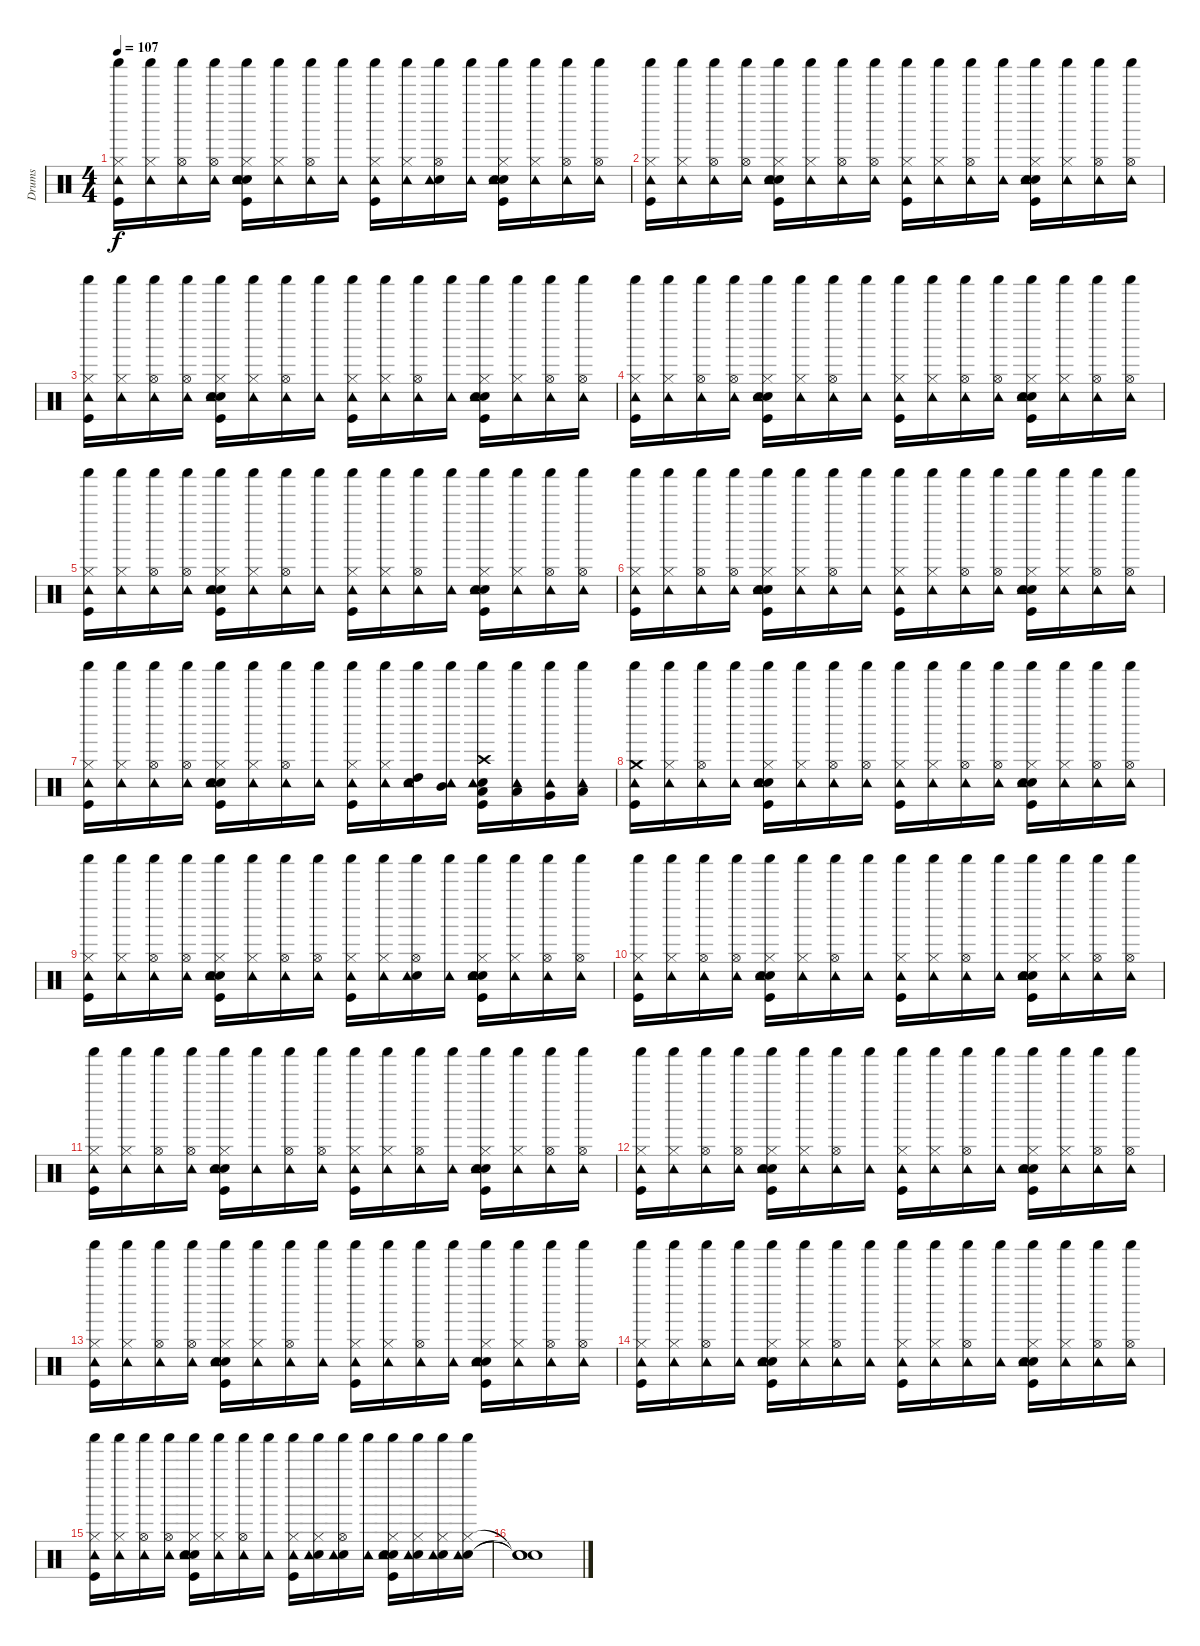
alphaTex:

\track ("Drums" "Drums") {instrument percussion}
\staff {score}
\articulation defaults
\ts (4 4)
\tempo 107
\clef neutral
\ks c
("Kick (hit)" "Hi-Hat (closed)" "Tambourine (hit)" "Shaker (hit)").16{dy f} ("Hi-Hat (closed)" "Tambourine (hit)" "Shaker (hit)").16 ("Hi-Hat (open)" "Tambourine (hit)" "Shaker (hit)").16 ("Hi-Hat (open)" "Tambourine (hit)" "Shaker (hit)").16 ("Kick (hit)" "Snare (hit) 2" "Hand Clap (hit)" "Hi-Hat (closed)" "Tambourine (hit)" "Shaker (hit)").16 ("Hi-Hat (closed)" "Tambourine (hit)" "Shaker (hit)").16 ("Hi-Hat (open)" "Tambourine (hit)" "Shaker (hit)").16 ("Tambourine (hit)" "Shaker (hit)").16 ("Kick (hit)" "Hi-Hat (closed)" "Tambourine (hit)" "Shaker (hit)").16 ("Hi-Hat (closed)" "Tambourine (hit)" "Shaker (hit)").16 ("Hand Clap (hit)" "Hi-Hat (open)" "Tambourine (hit)" "Shaker (hit)").16 ("Tambourine (hit)" "Shaker (hit)").16 ("Kick (hit)" "Snare (hit) 2" "Hand Clap (hit)" "Hi-Hat (closed)" "Tambourine (hit)" "Shaker (hit)").16 ("Hi-Hat (closed)" "Tambourine (hit)" "Shaker (hit)").16 ("Hi-Hat (open)" "Tambourine (hit)" "Shaker (hit)").16 ("Hi-Hat (open)" "Tambourine (hit)" "Shaker (hit)").16 |
("Kick (hit)" "Hi-Hat (closed)" "Tambourine (hit)" "Shaker (hit)").16 ("Hi-Hat (closed)" "Tambourine (hit)" "Shaker (hit)").16 ("Hi-Hat (open)" "Tambourine (hit)" "Shaker (hit)").16 ("Hi-Hat (open)" "Tambourine (hit)" "Shaker (hit)").16 ("Kick (hit)" "Snare (hit) 2" "Hand Clap (hit)" "Hi-Hat (closed)" "Tambourine (hit)" "Shaker (hit)").16 ("Hi-Hat (closed)" "Tambourine (hit)" "Shaker (hit)").16 ("Hi-Hat (open)" "Tambourine (hit)" "Shaker (hit)").16 ("Hi-Hat (open)" "Tambourine (hit)" "Shaker (hit)").16 ("Kick (hit)" "Hi-Hat (closed)" "Tambourine (hit)" "Shaker (hit)").16 ("Hi-Hat (closed)" "Tambourine (hit)" "Shaker (hit)").16 ("Hi-Hat (open)" "Tambourine (hit)" "Shaker (hit)").16 ("Tambourine (hit)" "Shaker (hit)").16 ("Kick (hit)" "Snare (hit) 2" "Hand Clap (hit)" "Hi-Hat (closed)" "Tambourine (hit)" "Shaker (hit)").16 ("Hi-Hat (closed)" "Tambourine (hit)" "Shaker (hit)").16 ("Hi-Hat (open)" "Tambourine (hit)" "Shaker (hit)").16 ("Hi-Hat (open)" "Tambourine (hit)" "Shaker (hit)").16 |
("Kick (hit)" "Hi-Hat (closed)" "Tambourine (hit)" "Shaker (hit)").16 ("Hi-Hat (closed)" "Tambourine (hit)" "Shaker (hit)").16 ("Hi-Hat (open)" "Tambourine (hit)" "Shaker (hit)").16 ("Hi-Hat (open)" "Tambourine (hit)" "Shaker (hit)").16 ("Kick (hit)" "Snare (hit) 2" "Hand Clap (hit)" "Hi-Hat (closed)" "Tambourine (hit)" "Shaker (hit)").16 ("Hi-Hat (closed)" "Tambourine (hit)" "Shaker (hit)").16 ("Hi-Hat (open)" "Tambourine (hit)" "Shaker (hit)").16 ("Tambourine (hit)" "Shaker (hit)").16 ("Kick (hit)" "Hi-Hat (closed)" "Tambourine (hit)" "Shaker (hit)").16 ("Hi-Hat (closed)" "Tambourine (hit)" "Shaker (hit)").16 ("Hi-Hat (open)" "Tambourine (hit)" "Shaker (hit)").16 ("Tambourine (hit)" "Shaker (hit)").16 ("Kick (hit)" "Snare (hit) 2" "Hand Clap (hit)" "Hi-Hat (closed)" "Tambourine (hit)" "Shaker (hit)").16 ("Hi-Hat (closed)" "Tambourine (hit)" "Shaker (hit)").16 ("Hi-Hat (open)" "Tambourine (hit)" "Shaker (hit)").16 ("Hi-Hat (open)" "Tambourine (hit)" "Shaker (hit)").16 |
("Kick (hit)" "Hi-Hat (closed)" "Tambourine (hit)" "Shaker (hit)").16 ("Hi-Hat (closed)" "Tambourine (hit)" "Shaker (hit)").16 ("Hi-Hat (open)" "Tambourine (hit)" "Shaker (hit)").16 ("Hi-Hat (open)" "Tambourine (hit)" "Shaker (hit)").16 ("Kick (hit)" "Snare (hit) 2" "Hand Clap (hit)" "Hi-Hat (closed)" "Tambourine (hit)" "Shaker (hit)").16 ("Hi-Hat (closed)" "Tambourine (hit)" "Shaker (hit)").16 ("Hi-Hat (open)" "Tambourine (hit)" "Shaker (hit)").16 ("Tambourine (hit)" "Shaker (hit)").16 ("Kick (hit)" "Hi-Hat (closed)" "Tambourine (hit)" "Shaker (hit)").16 ("Hi-Hat (closed)" "Tambourine (hit)" "Shaker (hit)").16 ("Hi-Hat (open)" "Tambourine (hit)" "Shaker (hit)").16 ("Hi-Hat (open)" "Tambourine (hit)" "Shaker (hit)").16 ("Kick (hit)" "Snare (hit) 2" "Hand Clap (hit)" "Hi-Hat (closed)" "Tambourine (hit)" "Shaker (hit)").16 ("Hi-Hat (closed)" "Tambourine (hit)" "Shaker (hit)").16 ("Hi-Hat (open)" "Tambourine (hit)" "Shaker (hit)").16 ("Hi-Hat (open)" "Tambourine (hit)" "Shaker (hit)").16 |
("Kick (hit)" "Hi-Hat (closed)" "Tambourine (hit)" "Shaker (hit)").16 ("Hi-Hat (closed)" "Tambourine (hit)" "Shaker (hit)").16 ("Hi-Hat (open)" "Tambourine (hit)" "Shaker (hit)").16 ("Hi-Hat (open)" "Tambourine (hit)" "Shaker (hit)").16 ("Kick (hit)" "Snare (hit) 2" "Hand Clap (hit)" "Hi-Hat (closed)" "Tambourine (hit)" "Shaker (hit)").16 ("Hi-Hat (closed)" "Tambourine (hit)" "Shaker (hit)").16 ("Hi-Hat (open)" "Tambourine (hit)" "Shaker (hit)").16 ("Tambourine (hit)" "Shaker (hit)").16 ("Kick (hit)" "Hi-Hat (closed)" "Tambourine (hit)" "Shaker (hit)").16 ("Hi-Hat (closed)" "Tambourine (hit)" "Shaker (hit)").16 ("Hi-Hat (open)" "Tambourine (hit)" "Shaker (hit)").16 ("Tambourine (hit)" "Shaker (hit)").16 ("Kick (hit)" "Snare (hit) 2" "Hand Clap (hit)" "Hi-Hat (closed)" "Tambourine (hit)" "Shaker (hit)").16 ("Hi-Hat (closed)" "Tambourine (hit)" "Shaker (hit)").16 ("Hi-Hat (open)" "Tambourine (hit)" "Shaker (hit)").16 ("Hi-Hat (open)" "Tambourine (hit)" "Shaker (hit)").16 |
("Kick (hit)" "Hi-Hat (closed)" "Tambourine (hit)" "Shaker (hit)").16 ("Hi-Hat (closed)" "Tambourine (hit)" "Shaker (hit)").16 ("Hi-Hat (open)" "Tambourine (hit)" "Shaker (hit)").16 ("Hi-Hat (open)" "Tambourine (hit)" "Shaker (hit)").16 ("Kick (hit)" "Snare (hit) 2" "Hand Clap (hit)" "Hi-Hat (closed)" "Tambourine (hit)" "Shaker (hit)").16 ("Hi-Hat (closed)" "Tambourine (hit)" "Shaker (hit)").16 ("Hi-Hat (open)" "Tambourine (hit)" "Shaker (hit)").16 ("Tambourine (hit)" "Shaker (hit)").16 ("Kick (hit)" "Hi-Hat (closed)" "Tambourine (hit)" "Shaker (hit)").16 ("Hi-Hat (closed)" "Tambourine (hit)" "Shaker (hit)").16 ("Hi-Hat (open)" "Tambourine (hit)" "Shaker (hit)").16 ("Hi-Hat (open)" "Tambourine (hit)" "Shaker (hit)").16 ("Kick (hit)" "Snare (hit) 2" "Hand Clap (hit)" "Hi-Hat (closed)" "Tambourine (hit)" "Shaker (hit)").16 ("Hi-Hat (closed)" "Tambourine (hit)" "Shaker (hit)").16 ("Hi-Hat (open)" "Tambourine (hit)" "Shaker (hit)").16 ("Hi-Hat (open)" "Tambourine (hit)" "Shaker (hit)").16 |
("Kick (hit)" "Hi-Hat (closed)" "Tambourine (hit)" "Shaker (hit)").16 ("Hi-Hat (closed)" "Tambourine (hit)" "Shaker (hit)").16 ("Hi-Hat (open)" "Tambourine (hit)" "Shaker (hit)").16 ("Hi-Hat (open)" "Tambourine (hit)" "Shaker (hit)").16 ("Kick (hit)" "Snare (hit) 2" "Hand Clap (hit)" "Hi-Hat (closed)" "Tambourine (hit)" "Shaker (hit)").16 ("Hi-Hat (closed)" "Tambourine (hit)" "Shaker (hit)").16 ("Hi-Hat (open)" "Tambourine (hit)" "Shaker (hit)").16 ("Tambourine (hit)" "Shaker (hit)").16 ("Kick (hit)" "Hi-Hat (closed)" "Tambourine (hit)" "Shaker (hit)").16 ("Hi-Hat (closed)" "Tambourine (hit)" "Shaker (hit)").16 ("Hand Clap (hit)" "High Tom (hit)" "Tambourine (hit)" "Shaker (hit)").16 ("Mid Tom (hit)" "Tambourine (hit)" "Shaker (hit)").16 ("Kick (hit)" "Hand Clap (hit)" "Low Tom (hit)" "Crash high (hit)" "Tambourine (hit)" "Shaker (hit)").16 ("Low Tom (hit)" "Tambourine (hit)" "Shaker (hit)").16 ("Very Low Tom (hit)" "Tambourine (hit)" "Shaker (hit)").16 ("Low Floor Tom (hit)" "Tambourine (hit)" "Shaker (hit)").16 |
("Kick (hit)" "Tambourine (hit)" "Crash medium (hit)" "Shaker (hit)").16 ("Hi-Hat (closed)" "Tambourine (hit)" "Shaker (hit)").16 ("Hi-Hat (open)" "Tambourine (hit)" "Shaker (hit)").16 ("Tambourine (hit)" "Shaker (hit)").16 ("Kick (hit)" "Snare (hit) 2" "Hand Clap (hit)" "Hi-Hat (closed)" "Tambourine (hit)" "Shaker (hit)").16 ("Hi-Hat (closed)" "Tambourine (hit)" "Shaker (hit)").16 ("Hi-Hat (open)" "Tambourine (hit)" "Shaker (hit)").16 ("Hi-Hat (open)" "Tambourine (hit)" "Shaker (hit)").16 ("Kick (hit)" "Hi-Hat (closed)" "Tambourine (hit)" "Shaker (hit)").16 ("Hi-Hat (closed)" "Tambourine (hit)" "Shaker (hit)").16 ("Hi-Hat (open)" "Tambourine (hit)" "Shaker (hit)").16 ("Hi-Hat (open)" "Tambourine (hit)" "Shaker (hit)").16 ("Kick (hit)" "Snare (hit) 2" "Hand Clap (hit)" "Hi-Hat (closed)" "Tambourine (hit)" "Shaker (hit)").16 ("Hi-Hat (closed)" "Tambourine (hit)" "Shaker (hit)").16 ("Hi-Hat (open)" "Tambourine (hit)" "Shaker (hit)").16 ("Hi-Hat (open)" "Tambourine (hit)" "Shaker (hit)").16 |
("Kick (hit)" "Hi-Hat (closed)" "Tambourine (hit)" "Shaker (hit)").16 ("Hi-Hat (closed)" "Tambourine (hit)" "Shaker (hit)").16 ("Hi-Hat (open)" "Tambourine (hit)" "Shaker (hit)").16 ("Hi-Hat (open)" "Tambourine (hit)" "Shaker (hit)").16 ("Kick (hit)" "Snare (hit) 2" "Hand Clap (hit)" "Hi-Hat (closed)" "Tambourine (hit)" "Shaker (hit)").16 ("Hi-Hat (closed)" "Tambourine (hit)" "Shaker (hit)").16 ("Hi-Hat (open)" "Tambourine (hit)" "Shaker (hit)").16 ("Hi-Hat (open)" "Tambourine (hit)" "Shaker (hit)").16 ("Kick (hit)" "Hi-Hat (closed)" "Tambourine (hit)" "Shaker (hit)").16 ("Hi-Hat (closed)" "Tambourine (hit)" "Shaker (hit)").16 ("Hand Clap (hit)" "Hi-Hat (open)" "Tambourine (hit)" "Shaker (hit)").16 ("Tambourine (hit)" "Shaker (hit)").16 ("Kick (hit)" "Snare (hit) 2" "Hand Clap (hit)" "Hi-Hat (closed)" "Tambourine (hit)" "Shaker (hit)").16 ("Hi-Hat (closed)" "Tambourine (hit)" "Shaker (hit)").16 ("Hi-Hat (open)" "Tambourine (hit)" "Shaker (hit)").16 ("Hi-Hat (open)" "Tambourine (hit)" "Shaker (hit)").16 |
("Kick (hit)" "Hi-Hat (closed)" "Tambourine (hit)" "Shaker (hit)").16 ("Hi-Hat (closed)" "Tambourine (hit)" "Shaker (hit)").16 ("Hi-Hat (open)" "Tambourine (hit)" "Shaker (hit)").16 ("Hi-Hat (open)" "Tambourine (hit)" "Shaker (hit)").16 ("Kick (hit)" "Snare (hit) 2" "Hand Clap (hit)" "Hi-Hat (closed)" "Tambourine (hit)" "Shaker (hit)").16 ("Hi-Hat (closed)" "Tambourine (hit)" "Shaker (hit)").16 ("Hi-Hat (open)" "Tambourine (hit)" "Shaker (hit)").16 ("Tambourine (hit)" "Shaker (hit)").16 ("Kick (hit)" "Hi-Hat (closed)" "Tambourine (hit)" "Shaker (hit)").16 ("Hi-Hat (closed)" "Tambourine (hit)" "Shaker (hit)").16 ("Hi-Hat (open)" "Tambourine (hit)" "Shaker (hit)").16 ("Tambourine (hit)" "Shaker (hit)").16 ("Kick (hit)" "Snare (hit) 2" "Hand Clap (hit)" "Hi-Hat (closed)" "Tambourine (hit)" "Shaker (hit)").16 ("Hi-Hat (closed)" "Tambourine (hit)" "Shaker (hit)").16 ("Hi-Hat (open)" "Tambourine (hit)" "Shaker (hit)").16 ("Hi-Hat (open)" "Tambourine (hit)" "Shaker (hit)").16 |
("Kick (hit)" "Hi-Hat (closed)" "Tambourine (hit)" "Shaker (hit)").16 ("Hi-Hat (closed)" "Tambourine (hit)" "Shaker (hit)").16 ("Hi-Hat (open)" "Tambourine (hit)" "Shaker (hit)").16 ("Hi-Hat (open)" "Tambourine (hit)" "Shaker (hit)").16 ("Kick (hit)" "Snare (hit) 2" "Hand Clap (hit)" "Hi-Hat (closed)" "Tambourine (hit)" "Shaker (hit)").16 ("Tambourine (hit)" "Shaker (hit)").16 ("Hi-Hat (open)" "Tambourine (hit)" "Shaker (hit)").16 ("Hi-Hat (open)" "Tambourine (hit)" "Shaker (hit)").16 ("Kick (hit)" "Hi-Hat (closed)" "Tambourine (hit)" "Shaker (hit)").16 ("Hi-Hat (closed)" "Tambourine (hit)" "Shaker (hit)").16 ("Hi-Hat (open)" "Tambourine (hit)" "Shaker (hit)").16 ("Tambourine (hit)" "Shaker (hit)").16 ("Kick (hit)" "Snare (hit) 2" "Hand Clap (hit)" "Hi-Hat (closed)" "Tambourine (hit)" "Shaker (hit)").16 ("Hi-Hat (closed)" "Tambourine (hit)" "Shaker (hit)").16 ("Hi-Hat (open)" "Tambourine (hit)" "Shaker (hit)").16 ("Hi-Hat (open)" "Tambourine (hit)" "Shaker (hit)").16 |
("Kick (hit)" "Hi-Hat (closed)" "Tambourine (hit)" "Shaker (hit)").16 ("Hi-Hat (closed)" "Tambourine (hit)" "Shaker (hit)").16 ("Hi-Hat (open)" "Tambourine (hit)" "Shaker (hit)").16 ("Hi-Hat (open)" "Tambourine (hit)" "Shaker (hit)").16 ("Kick (hit)" "Snare (hit) 2" "Hand Clap (hit)" "Hi-Hat (closed)" "Tambourine (hit)" "Shaker (hit)").16 ("Hi-Hat (closed)" "Tambourine (hit)" "Shaker (hit)").16 ("Hi-Hat (open)" "Tambourine (hit)" "Shaker (hit)").16 ("Tambourine (hit)" "Shaker (hit)").16 ("Kick (hit)" "Hi-Hat (closed)" "Tambourine (hit)" "Shaker (hit)").16 ("Hi-Hat (closed)" "Tambourine (hit)" "Shaker (hit)").16 ("Hi-Hat (open)" "Tambourine (hit)" "Shaker (hit)").16 ("Tambourine (hit)" "Shaker (hit)").16 ("Kick (hit)" "Snare (hit) 2" "Hand Clap (hit)" "Hi-Hat (closed)" "Tambourine (hit)" "Shaker (hit)").16 ("Hi-Hat (closed)" "Tambourine (hit)" "Shaker (hit)").16 ("Hi-Hat (open)" "Tambourine (hit)" "Shaker (hit)").16 ("Hi-Hat (open)" "Tambourine (hit)" "Shaker (hit)").16 |
("Kick (hit)" "Hi-Hat (closed)" "Tambourine (hit)" "Shaker (hit)").16 ("Hi-Hat (closed)" "Tambourine (hit)" "Shaker (hit)").16 ("Hi-Hat (open)" "Tambourine (hit)" "Shaker (hit)").16 ("Hi-Hat (open)" "Tambourine (hit)" "Shaker (hit)").16 ("Kick (hit)" "Snare (hit) 2" "Hand Clap (hit)" "Hi-Hat (closed)" "Tambourine (hit)" "Shaker (hit)").16 ("Hi-Hat (closed)" "Tambourine (hit)" "Shaker (hit)").16 ("Hi-Hat (open)" "Tambourine (hit)" "Shaker (hit)").16 ("Tambourine (hit)" "Shaker (hit)").16 ("Kick (hit)" "Hi-Hat (closed)" "Tambourine (hit)" "Shaker (hit)").16 ("Hi-Hat (closed)" "Tambourine (hit)" "Shaker (hit)").16 ("Hi-Hat (open)" "Tambourine (hit)" "Shaker (hit)").16 ("Tambourine (hit)" "Shaker (hit)").16 ("Kick (hit)" "Snare (hit) 2" "Hand Clap (hit)" "Hi-Hat (closed)" "Tambourine (hit)" "Shaker (hit)").16 ("Hi-Hat (closed)" "Tambourine (hit)" "Shaker (hit)").16 ("Hi-Hat (open)" "Tambourine (hit)" "Shaker (hit)").16 ("Hi-Hat (open)" "Tambourine (hit)" "Shaker (hit)").16 |
("Kick (hit)" "Hi-Hat (closed)" "Tambourine (hit)" "Shaker (hit)").16 ("Hi-Hat (closed)" "Tambourine (hit)" "Shaker (hit)").16 ("Hi-Hat (open)" "Tambourine (hit)" "Shaker (hit)").16 ("Tambourine (hit)" "Shaker (hit)").16 ("Kick (hit)" "Snare (hit) 2" "Hand Clap (hit)" "Hi-Hat (closed)" "Tambourine (hit)" "Shaker (hit)").16 ("Hi-Hat (closed)" "Tambourine (hit)" "Shaker (hit)").16 ("Hi-Hat (open)" "Tambourine (hit)" "Shaker (hit)").16 ("Tambourine (hit)" "Shaker (hit)").16 ("Kick (hit)" "Hi-Hat (closed)" "Tambourine (hit)" "Shaker (hit)").16 ("Hi-Hat (closed)" "Tambourine (hit)" "Shaker (hit)").16 ("Hi-Hat (open)" "Tambourine (hit)" "Shaker (hit)").16 ("Tambourine (hit)" "Shaker (hit)").16 ("Kick (hit)" "Snare (hit) 2" "Hand Clap (hit)" "Hi-Hat (closed)" "Tambourine (hit)" "Shaker (hit)").16 ("Hi-Hat (closed)" "Tambourine (hit)" "Shaker (hit)").16 ("Hi-Hat (open)" "Tambourine (hit)" "Shaker (hit)").16 ("Hi-Hat (open)" "Tambourine (hit)" "Shaker (hit)").16 |
("Kick (hit)" "Hi-Hat (closed)" "Tambourine (hit)" "Shaker (hit)").16 ("Hi-Hat (closed)" "Tambourine (hit)" "Shaker (hit)").16 ("Hi-Hat (open)" "Tambourine (hit)" "Shaker (hit)").16 ("Hi-Hat (open)" "Tambourine (hit)" "Shaker (hit)").16 ("Kick (hit)" "Snare (hit) 2" "Hand Clap (hit)" "Hi-Hat (closed)" "Tambourine (hit)" "Shaker (hit)").16 ("Hi-Hat (closed)" "Tambourine (hit)" "Shaker (hit)").16 ("Hi-Hat (open)" "Tambourine (hit)" "Shaker (hit)").16 ("Tambourine (hit)" "Shaker (hit)").16 ("Kick (hit)" "Hi-Hat (closed)" "Tambourine (hit)" "Shaker (hit)").16 ("Snare (hit) 2" "Hi-Hat (closed)" "Tambourine (hit)" "Shaker (hit)").16 ("Hand Clap (hit)" "Hi-Hat (open)" "Tambourine (hit)" "Shaker (hit)").16 ("Tambourine (hit)" "Shaker (hit)").16 ("Kick (hit)" "Snare (hit) 2" "Hand Clap (hit)" "Hi-Hat (closed)" "Tambourine (hit)" "Shaker (hit)").16 ("Snare (hit) 2" "Hi-Hat (closed)" "Tambourine (hit)" "Shaker (hit)").16 ("Snare (hit) 2" "Hi-Hat (closed)" "Tambourine (hit)" "Shaker (hit)").16 ("Snare (hit) 2" "Hi-Hat (closed)" "Tambourine (hit)" "Shaker (hit)").16 |
("Snare (hit)"{t} "Snare (hit)"{t} "Snare (hit)"{t}).1
